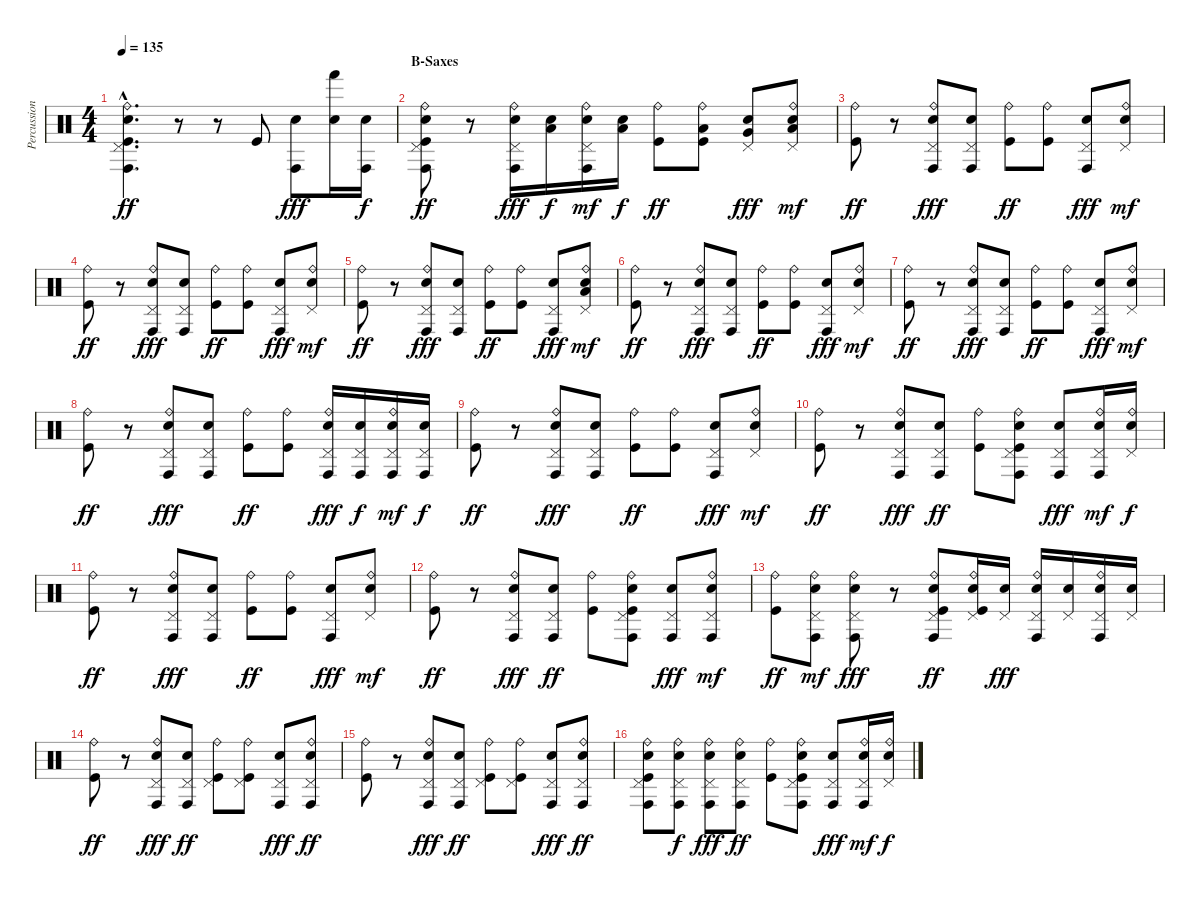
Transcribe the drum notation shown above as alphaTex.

\track ("Percussion" "Percussion") {instrument percussion}
\staff {score}
\articulation defaults
\ts (4 4)
\tempo 135
\clef neutral
\ks c
("Ride (bell)"{hac} "Pedal Hi-Hat (hit)"{hac} "Conga high (hit)"{hac} "Electric Snare (hit)"{hac} "Kick (hit)"{hac}).4{d dy ff} r.8 r.8 "Kick (hit)".8 ("Conga high (hit)" "Electric Snare (hit)").8{dy fff} ("Hand (hit)" "Electric Snare (hit)").16 ("Conga high (hit)" "Electric Snare (hit)").16{dy f} |
\section ("" "B-Saxes")
("Ride (bell)" "Pedal Hi-Hat (hit)" "Conga high (hit)" "Electric Snare (hit)" "Kick (hit)").8{dy ff} r.8 ("Ride (bell)" "Pedal Hi-Hat (hit)" "Conga high (hit)" "Electric Snare (hit)").16{dy fff} ("Low Tom (hit)" "Electric Snare (hit)").16{dy f} ("Ride (bell)" "Pedal Hi-Hat (hit)" "Conga high (hit)" "Electric Snare (hit)").16{dy mf} ("Low Tom (hit)" "Electric Snare (hit)").16{dy f} ("Ride (bell)" "Kick (hit)").8{dy ff} ("Ride (bell)" "Low Tom (hit)" "Kick (hit)").8 ("Pedal Hi-Hat (hit)" "Very Low Tom (hit)" "Electric Snare (hit)").8{dy fff} ("Ride (bell)" "Pedal Hi-Hat (hit)" "Low Floor Tom (hit)" "Electric Snare (hit)").8{dy mf} |
("Ride (bell)" "Kick (hit)").8{dy ff} r.8 ("Ride (bell)" "Pedal Hi-Hat (hit)" "Conga high (hit)" "Electric Snare (hit)").8{dy fff} ("Pedal Hi-Hat (hit)" "Conga high (hit)" "Electric Snare (hit)").8 ("Ride (bell)" "Kick (hit)").8{dy ff} ("Ride (bell)" "Kick (hit)").8 ("Pedal Hi-Hat (hit)" "Conga high (hit)" "Electric Snare (hit)").8{dy fff} ("Ride (bell)" "Pedal Hi-Hat (hit)" "Electric Snare (hit)").8{dy mf} |
("Ride (bell)" "Kick (hit)").8{dy ff} r.8 ("Ride (bell)" "Pedal Hi-Hat (hit)" "Conga high (hit)" "Electric Snare (hit)").8{dy fff} ("Pedal Hi-Hat (hit)" "Conga high (hit)" "Electric Snare (hit)").8 ("Ride (bell)" "Kick (hit)").8{dy ff} ("Ride (bell)" "Kick (hit)").8 ("Pedal Hi-Hat (hit)" "Conga high (hit)" "Electric Snare (hit)").8{dy fff} ("Ride (bell)" "Pedal Hi-Hat (hit)" "Electric Snare (hit)").8{dy mf} |
("Ride (bell)" "Kick (hit)").8{dy ff} r.8 ("Ride (bell)" "Pedal Hi-Hat (hit)" "Conga high (hit)" "Electric Snare (hit)").8{dy fff} ("Pedal Hi-Hat (hit)" "Conga high (hit)" "Electric Snare (hit)").8 ("Ride (bell)" "Kick (hit)").8{dy ff} ("Ride (bell)" "Kick (hit)").8 ("Pedal Hi-Hat (hit)" "Conga high (hit)" "Electric Snare (hit)").8{dy fff} ("Ride (bell)" "Pedal Hi-Hat (hit)" "Low Tom (hit)" "Electric Snare (hit)").8{dy mf} |
("Ride (bell)" "Kick (hit)").8{dy ff} r.8 ("Ride (bell)" "Pedal Hi-Hat (hit)" "Conga high (hit)" "Electric Snare (hit)").8{dy fff} ("Pedal Hi-Hat (hit)" "Conga high (hit)" "Electric Snare (hit)").8 ("Ride (bell)" "Kick (hit)").8{dy ff} ("Ride (bell)" "Kick (hit)").8 ("Pedal Hi-Hat (hit)" "Conga high (hit)" "Electric Snare (hit)").8{dy fff} ("Ride (bell)" "Pedal Hi-Hat (hit)" "Electric Snare (hit)").8{dy mf} |
("Ride (bell)" "Kick (hit)").8{dy ff} r.8 ("Ride (bell)" "Pedal Hi-Hat (hit)" "Conga high (hit)" "Electric Snare (hit)").8{dy fff} ("Pedal Hi-Hat (hit)" "Conga high (hit)" "Electric Snare (hit)").8 ("Ride (bell)" "Kick (hit)").8{dy ff} ("Ride (bell)" "Kick (hit)").8 ("Pedal Hi-Hat (hit)" "Conga high (hit)" "Electric Snare (hit)").8{dy fff} ("Ride (bell)" "Pedal Hi-Hat (hit)" "Electric Snare (hit)").8{dy mf} |
("Ride (bell)" "Kick (hit)").8{dy ff} r.8 ("Ride (bell)" "Pedal Hi-Hat (hit)" "Conga high (hit)" "Electric Snare (hit)").8{dy fff} ("Pedal Hi-Hat (hit)" "Conga high (hit)" "Electric Snare (hit)").8 ("Ride (bell)" "Kick (hit)").8{dy ff} ("Ride (bell)" "Kick (hit)").8 ("Ride (bell)" "Pedal Hi-Hat (hit)" "Conga high (hit)" "Electric Snare (hit)").16{dy fff} ("Pedal Hi-Hat (hit)" "Conga high (hit)" "Electric Snare (hit)").16{dy f} ("Ride (bell)" "Pedal Hi-Hat (hit)" "Conga high (hit)" "Electric Snare (hit)").16{dy mf} ("Pedal Hi-Hat (hit)" "Conga high (hit)" "Electric Snare (hit)").16{dy f} |
("Ride (bell)" "Kick (hit)").8{dy ff} r.8 ("Ride (bell)" "Pedal Hi-Hat (hit)" "Conga high (hit)" "Electric Snare (hit)").8{dy fff} ("Pedal Hi-Hat (hit)" "Conga high (hit)" "Electric Snare (hit)").8 ("Ride (bell)" "Kick (hit)").8{dy ff} ("Ride (bell)" "Kick (hit)").8 ("Pedal Hi-Hat (hit)" "Conga high (hit)" "Electric Snare (hit)").8{dy fff} ("Ride (bell)" "Pedal Hi-Hat (hit)" "Electric Snare (hit)").8{dy mf} |
("Ride (bell)" "Kick (hit)").8{dy ff} r.8 ("Ride (bell)" "Pedal Hi-Hat (hit)" "Conga high (hit)" "Electric Snare (hit)").8{dy fff} ("Pedal Hi-Hat (hit)" "Conga high (hit)" "Electric Snare (hit)").8{dy ff} ("Ride (bell)" "Kick (hit)").8 ("Ride (bell)" "Pedal Hi-Hat (hit)" "Conga high (hit)" "Electric Snare (hit)" "Kick (hit)").8 ("Pedal Hi-Hat (hit)" "Conga high (hit)" "Electric Snare (hit)").8{dy fff} ("Ride (bell)" "Pedal Hi-Hat (hit)" "Conga high (hit)" "Electric Snare (hit)").16{dy mf} ("Pedal Hi-Hat (hit)" "Ride (bell)" "Electric Snare (hit)").16{dy f} |
("Ride (bell)" "Kick (hit)").8{dy ff} r.8 ("Ride (bell)" "Pedal Hi-Hat (hit)" "Conga high (hit)" "Electric Snare (hit)").8{dy fff} ("Pedal Hi-Hat (hit)" "Conga high (hit)" "Electric Snare (hit)").8 ("Ride (bell)" "Kick (hit)").8{dy ff} ("Ride (bell)" "Kick (hit)").8 ("Pedal Hi-Hat (hit)" "Conga high (hit)" "Electric Snare (hit)").8{dy fff} ("Ride (bell)" "Pedal Hi-Hat (hit)" "Electric Snare (hit)").8{dy mf} |
("Ride (bell)" "Kick (hit)").8{dy ff} r.8 ("Ride (bell)" "Pedal Hi-Hat (hit)" "Conga high (hit)" "Electric Snare (hit)").8{dy fff} ("Pedal Hi-Hat (hit)" "Conga high (hit)" "Electric Snare (hit)").8{dy ff} ("Ride (bell)" "Kick (hit)").8 ("Ride (bell)" "Pedal Hi-Hat (hit)" "Conga high (hit)" "Electric Snare (hit)" "Kick (hit)").8 ("Pedal Hi-Hat (hit)" "Conga high (hit)" "Electric Snare (hit)").8{dy fff} ("Ride (bell)" "Pedal Hi-Hat (hit)" "Conga high (hit)" "Electric Snare (hit)").8{dy mf} |
("Ride (bell)" "Kick (hit)").8{dy ff} ("Ride (bell)" "Pedal Hi-Hat (hit)" "Conga high (hit)" "Electric Snare (hit)").8{dy mf} ("Ride (bell)" "Pedal Hi-Hat (hit)" "Conga high (hit)" "Electric Snare (hit)").8{dy fff} r.8 ("Ride (bell)" "Pedal Hi-Hat (hit)" "Conga high (hit)" "Electric Snare (hit)" "Kick (hit)").8{dy ff} ("Ride (bell)" "Pedal Hi-Hat (hit)" "Electric Snare (hit)" "Kick (hit)").16 ("Pedal Hi-Hat (hit)" "Electric Snare (hit)").16{dy fff} ("Ride (bell)" "Pedal Hi-Hat (hit)" "Conga high (hit)" "Electric Snare (hit)").16 ("Pedal Hi-Hat (hit)" "Electric Snare (hit)").16 ("Ride (bell)" "Pedal Hi-Hat (hit)" "Conga high (hit)" "Electric Snare (hit)").16 ("Pedal Hi-Hat (hit)" "Electric Snare (hit)").16 |
("Ride (bell)" "Kick (hit)").8{dy ff} r.8 ("Ride (bell)" "Pedal Hi-Hat (hit)" "Conga high (hit)" "Electric Snare (hit)").8{dy fff} ("Pedal Hi-Hat (hit)" "Conga high (hit)" "Electric Snare (hit)").8{dy ff} ("Ride (bell)" "Pedal Hi-Hat (hit)" "Kick (hit)").8 ("Ride (bell)" "Pedal Hi-Hat (hit)" "Kick (hit)").8 ("Pedal Hi-Hat (hit)" "Conga high (hit)" "Electric Snare (hit)").8{dy fff} ("Ride (bell)" "Pedal Hi-Hat (hit)" "Conga high (hit)" "Electric Snare (hit)").8{dy ff} |
("Ride (bell)" "Kick (hit)").8 r.8 ("Ride (bell)" "Pedal Hi-Hat (hit)" "Conga high (hit)" "Electric Snare (hit)").8{dy fff} ("Pedal Hi-Hat (hit)" "Conga high (hit)" "Electric Snare (hit)").8{dy ff} ("Ride (bell)" "Pedal Hi-Hat (hit)" "Kick (hit)").8 ("Ride (bell)" "Pedal Hi-Hat (hit)" "Kick (hit)").8 ("Pedal Hi-Hat (hit)" "Conga high (hit)" "Electric Snare (hit)").8{dy fff} ("Ride (bell)" "Pedal Hi-Hat (hit)" "Conga high (hit)" "Electric Snare (hit)").8{dy ff} |
("Ride (bell)" "Pedal Hi-Hat (hit)" "Conga high (hit)" "Electric Snare (hit)" "Kick (hit)").8 ("Ride (bell)" "Pedal Hi-Hat (hit)" "Conga high (hit)" "Electric Snare (hit)").8{dy f} ("Ride (bell)" "Pedal Hi-Hat (hit)" "Conga high (hit)" "Electric Snare (hit)").8{dy fff} ("Ride (bell)" "Pedal Hi-Hat (hit)" "Conga high (hit)" "Electric Snare (hit)").8{dy ff} ("Ride (bell)" "Kick (hit)").8 ("Ride (bell)" "Pedal Hi-Hat (hit)" "Conga high (hit)" "Electric Snare (hit)" "Kick (hit)").8 ("Pedal Hi-Hat (hit)" "Conga high (hit)" "Electric Snare (hit)").8{dy fff} ("Ride (bell)" "Pedal Hi-Hat (hit)" "Conga high (hit)" "Electric Snare (hit)").16{dy mf} ("Pedal Hi-Hat (hit)" "Ride (bell)" "Electric Snare (hit)").16{dy f}
